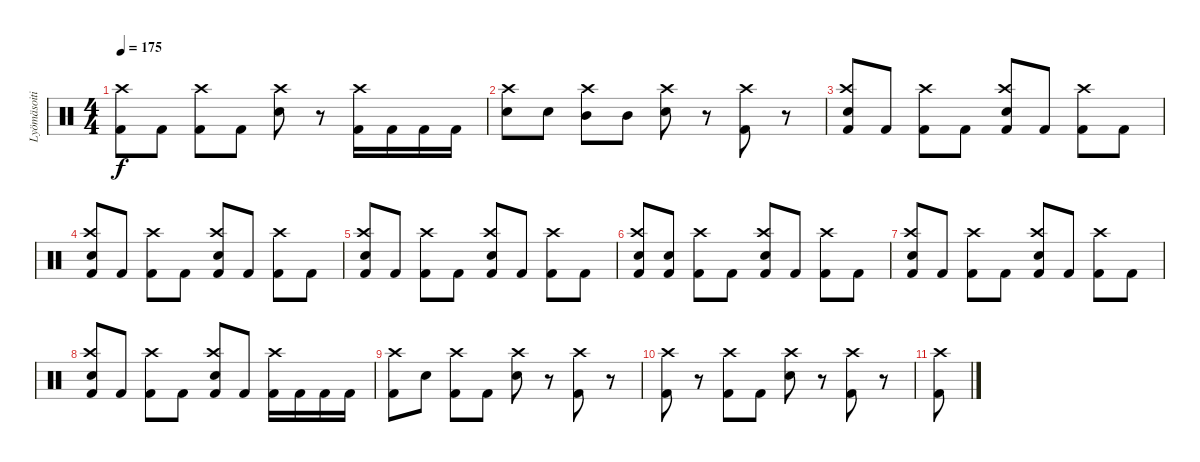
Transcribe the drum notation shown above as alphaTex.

\track ("Lyömäsoitin" "Lyömäsoiti") {instrument percussion}
\staff {score}
\articulation defaults
\ts (4 4)
\tempo 175
\clef neutral
\ks c
("Kick (hit) 2" "Crash high (hit)").8{dy f} "Kick (hit) 2".8 ("Kick (hit) 2" "Crash high (hit)").8 "Kick (hit) 2".8 ("Electric Snare (hit)" "Crash high (hit)").8 r.8 ("Kick (hit) 2" "Crash high (hit)").16 "Kick (hit) 2".16 "Kick (hit) 2".16 "Kick (hit) 2".16 |
("Electric Snare (hit)" "Crash high (hit)").8 "Electric Snare (hit)".8 ("Mid Tom (hit)" "Crash high (hit)").8 "Mid Tom (hit)".8 ("Electric Snare (hit)" "Crash high (hit)").8 r.8 ("Kick (hit) 2" "Crash high (hit)").8 r.8 |
("Kick (hit) 2" "Electric Snare (hit)" "Crash high (hit)").8 "Kick (hit) 2".8 ("Kick (hit) 2" "Crash high (hit)").8 "Kick (hit) 2".8 ("Kick (hit) 2" "Electric Snare (hit)" "Crash high (hit)").8 "Kick (hit) 2".8 ("Kick (hit) 2" "Crash high (hit)").8 "Kick (hit) 2".8 |
("Kick (hit) 2" "Electric Snare (hit)" "Crash high (hit)").8 "Kick (hit) 2".8 ("Kick (hit) 2" "Crash high (hit)").8 "Kick (hit) 2".8 ("Kick (hit) 2" "Electric Snare (hit)" "Crash high (hit)").8 "Kick (hit) 2".8 ("Kick (hit) 2" "Crash high (hit)").8 "Kick (hit) 2".8 |
("Kick (hit) 2" "Electric Snare (hit)" "Crash high (hit)").8 "Kick (hit) 2".8 ("Kick (hit) 2" "Crash high (hit)").8 "Kick (hit) 2".8 ("Kick (hit) 2" "Electric Snare (hit)" "Crash high (hit)").8 "Kick (hit) 2".8 ("Kick (hit) 2" "Crash high (hit)").8 "Kick (hit) 2".8 |
("Kick (hit) 2" "Electric Snare (hit)" "Crash high (hit)").8 ("Kick (hit) 2" "Electric Snare (hit)").8 ("Kick (hit) 2" "Crash high (hit)").8 "Kick (hit) 2".8 ("Kick (hit) 2" "Electric Snare (hit)" "Crash high (hit)").8 "Kick (hit) 2".8 ("Kick (hit) 2" "Crash high (hit)").8 "Kick (hit) 2".8 |
("Kick (hit) 2" "Electric Snare (hit)" "Crash high (hit)").8 "Kick (hit) 2".8 ("Kick (hit) 2" "Crash high (hit)").8 "Kick (hit) 2".8 ("Kick (hit) 2" "Electric Snare (hit)" "Crash high (hit)").8 "Kick (hit) 2".8 ("Kick (hit) 2" "Crash high (hit)").8 "Kick (hit) 2".8 |
("Kick (hit) 2" "Electric Snare (hit)" "Crash high (hit)").8 "Kick (hit) 2".8 ("Kick (hit) 2" "Crash high (hit)").8 "Kick (hit) 2".8 ("Kick (hit) 2" "Electric Snare (hit)" "Crash high (hit)").8 "Kick (hit) 2".8 ("Kick (hit) 2" "Crash high (hit)").16 "Kick (hit) 2".16 "Kick (hit) 2".16 "Kick (hit) 2".16 |
("Kick (hit) 2" "Crash high (hit)").8 "Electric Snare (hit)".8 ("Kick (hit) 2" "Crash high (hit)").8 "Kick (hit) 2".8 ("Electric Snare (hit)" "Crash high (hit)").8 r.8 ("Kick (hit) 2" "Crash high (hit)").8 r.8 |
("Kick (hit) 2" "Crash high (hit)").8 r.8 ("Kick (hit) 2" "Crash high (hit)").8 "Kick (hit) 2".8 ("Electric Snare (hit)" "Crash high (hit)").8 r.8 ("Kick (hit) 2" "Crash high (hit)").8 r.8 |
("Kick (hit) 2" "Crash high (hit)").8
